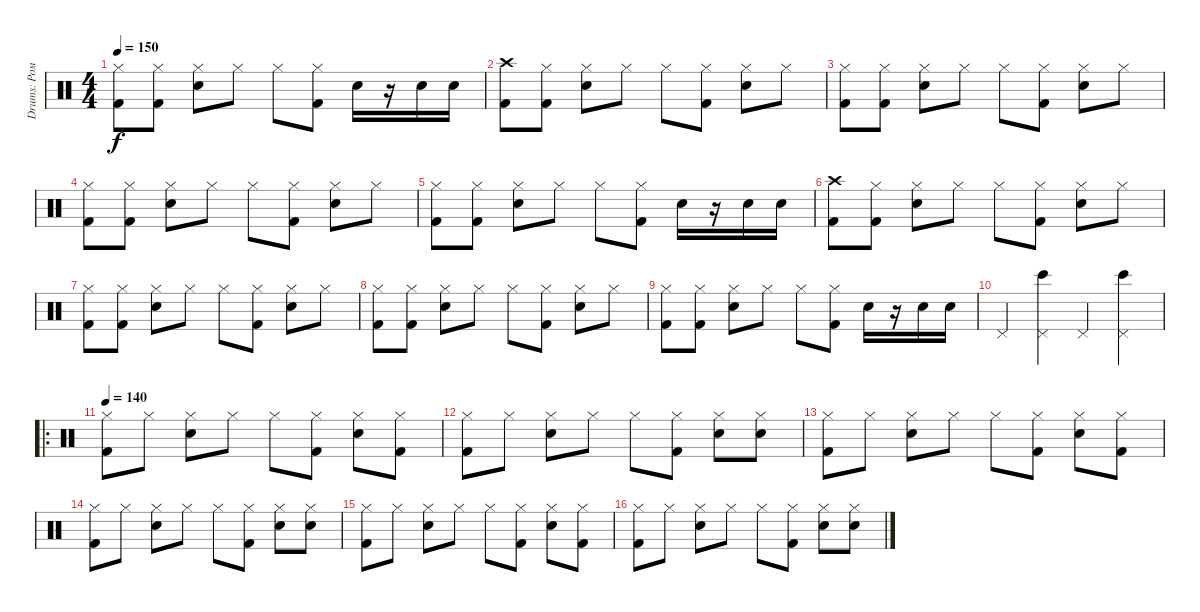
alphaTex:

\track ("Drums: Рома" "Drums: Ром") {instrument percussion}
\staff {score}
\articulation defaults
\ts (4 4)
\tempo 150
\clef neutral
\ks c
("Hi-Hat (closed)" "Kick (hit) 2").8{dy f} ("Hi-Hat (closed)" "Kick (hit) 2").8 ("Hi-Hat (closed)" "Snare (hit) 2").8 "Hi-Hat (closed)".8 "Hi-Hat (closed)".8 ("Hi-Hat (closed)" "Kick (hit) 2").8 "Snare (hit) 2".16 r.16 "Snare (hit) 2".16 "Snare (hit) 2".16 |
("Crash high (hit)" "Kick (hit) 2").8 ("Hi-Hat (closed)" "Kick (hit) 2").8 ("Hi-Hat (closed)" "Snare (hit) 2").8 "Hi-Hat (closed)".8 "Hi-Hat (closed)".8 ("Hi-Hat (closed)" "Kick (hit) 2").8 ("Hi-Hat (closed)" "Snare (hit) 2").8 "Hi-Hat (closed)".8 |
("Hi-Hat (closed)" "Kick (hit) 2").8 ("Hi-Hat (closed)" "Kick (hit) 2").8 ("Hi-Hat (closed)" "Snare (hit) 2").8 "Hi-Hat (closed)".8 "Hi-Hat (closed)".8 ("Hi-Hat (closed)" "Kick (hit) 2").8 ("Hi-Hat (closed)" "Snare (hit) 2").8 "Hi-Hat (closed)".8 |
("Hi-Hat (closed)" "Kick (hit) 2").8 ("Hi-Hat (closed)" "Kick (hit) 2").8 ("Hi-Hat (closed)" "Snare (hit) 2").8 "Hi-Hat (closed)".8 "Hi-Hat (closed)".8 ("Hi-Hat (closed)" "Kick (hit) 2").8 ("Hi-Hat (closed)" "Snare (hit) 2").8 "Hi-Hat (closed)".8 |
("Hi-Hat (closed)" "Kick (hit) 2").8 ("Hi-Hat (closed)" "Kick (hit) 2").8 ("Hi-Hat (closed)" "Snare (hit) 2").8 "Hi-Hat (closed)".8 "Hi-Hat (closed)".8 ("Hi-Hat (closed)" "Kick (hit) 2").8 "Snare (hit) 2".16 r.16 "Snare (hit) 2".16 "Snare (hit) 2".16 |
("Crash high (hit)" "Kick (hit) 2").8 ("Hi-Hat (closed)" "Kick (hit) 2").8 ("Hi-Hat (closed)" "Snare (hit) 2").8 "Hi-Hat (closed)".8 "Hi-Hat (closed)".8 ("Hi-Hat (closed)" "Kick (hit) 2").8 ("Hi-Hat (closed)" "Snare (hit) 2").8 "Hi-Hat (closed)".8 |
("Hi-Hat (closed)" "Kick (hit) 2").8 ("Hi-Hat (closed)" "Kick (hit) 2").8 ("Hi-Hat (closed)" "Snare (hit) 2").8 "Hi-Hat (closed)".8 "Hi-Hat (closed)".8 ("Hi-Hat (closed)" "Kick (hit) 2").8 ("Hi-Hat (closed)" "Snare (hit) 2").8 "Hi-Hat (closed)".8 |
("Hi-Hat (closed)" "Kick (hit) 2").8 ("Hi-Hat (closed)" "Kick (hit) 2").8 ("Hi-Hat (closed)" "Snare (hit) 2").8 "Hi-Hat (closed)".8 "Hi-Hat (closed)".8 ("Hi-Hat (closed)" "Kick (hit) 2").8 ("Hi-Hat (closed)" "Snare (hit) 2").8 "Hi-Hat (closed)".8 |
("Hi-Hat (closed)" "Kick (hit) 2").8 ("Hi-Hat (closed)" "Kick (hit) 2").8 ("Hi-Hat (closed)" "Snare (hit) 2").8 "Hi-Hat (closed)".8 "Hi-Hat (closed)".8 ("Hi-Hat (closed)" "Kick (hit) 2").8 "Snare (hit) 2".16 r.16 "Snare (hit) 2".16 "Snare (hit) 2".16 |
"Pedal Hi-Hat (hit)".4 ("Bongo High (hit)" "Pedal Hi-Hat (hit)").4 "Pedal Hi-Hat (hit)".4 ("Bongo High (hit)" "Pedal Hi-Hat (hit)").4 |
\ro
\tempo 140
("Hi-Hat (closed)" "Kick (hit) 2").8 "Hi-Hat (closed)".8 ("Hi-Hat (closed)" "Snare (hit) 2").8 "Hi-Hat (closed)".8 "Hi-Hat (closed)".8 ("Hi-Hat (closed)" "Kick (hit) 2").8 ("Hi-Hat (closed)" "Snare (hit) 2").8 ("Hi-Hat (closed)" "Kick (hit) 2").8 |
("Hi-Hat (closed)" "Kick (hit) 2").8 "Hi-Hat (closed)".8 ("Hi-Hat (closed)" "Snare (hit) 2").8 "Hi-Hat (closed)".8 "Hi-Hat (closed)".8 ("Hi-Hat (closed)" "Kick (hit) 2").8 ("Hi-Hat (closed)" "Snare (hit) 2").8 ("Hi-Hat (closed)" "Snare (hit) 2").8 |
("Hi-Hat (closed)" "Kick (hit) 2").8 "Hi-Hat (closed)".8 ("Hi-Hat (closed)" "Snare (hit) 2").8 "Hi-Hat (closed)".8 "Hi-Hat (closed)".8 ("Hi-Hat (closed)" "Kick (hit) 2").8 ("Hi-Hat (closed)" "Snare (hit) 2").8 ("Hi-Hat (closed)" "Kick (hit) 2").8 |
("Hi-Hat (closed)" "Kick (hit) 2").8 "Hi-Hat (closed)".8 ("Hi-Hat (closed)" "Snare (hit) 2").8 "Hi-Hat (closed)".8 "Hi-Hat (closed)".8 ("Hi-Hat (closed)" "Kick (hit) 2").8 ("Hi-Hat (closed)" "Snare (hit) 2").8 ("Hi-Hat (closed)" "Snare (hit) 2").8 |
("Hi-Hat (closed)" "Kick (hit) 2").8 "Hi-Hat (closed)".8 ("Hi-Hat (closed)" "Snare (hit) 2").8 "Hi-Hat (closed)".8 "Hi-Hat (closed)".8 ("Hi-Hat (closed)" "Kick (hit) 2").8 ("Hi-Hat (closed)" "Snare (hit) 2").8 ("Hi-Hat (closed)" "Kick (hit) 2").8 |
("Hi-Hat (closed)" "Kick (hit) 2").8 "Hi-Hat (closed)".8 ("Hi-Hat (closed)" "Snare (hit) 2").8 "Hi-Hat (closed)".8 "Hi-Hat (closed)".8 ("Hi-Hat (closed)" "Kick (hit) 2").8 ("Hi-Hat (closed)" "Snare (hit) 2").8 ("Hi-Hat (closed)" "Snare (hit) 2").8
